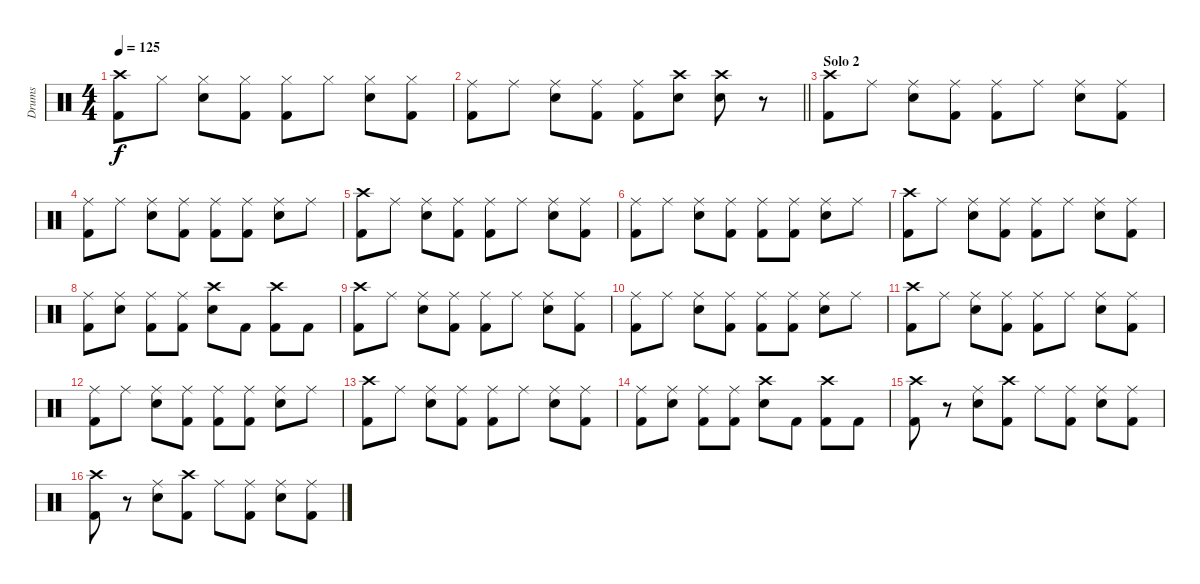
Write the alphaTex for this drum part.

\track ("Drums" "Drums") {instrument percussion}
\staff {score}
\articulation defaults
\ts (4 4)
\tempo 125
\clef neutral
\ks c
("Crash high (hit)" "Kick (hit) 2").8{dy f} "Hi-Hat (closed)".8 ("Hi-Hat (closed)" "Snare (hit) 2").8 ("Hi-Hat (closed)" "Kick (hit) 2").8 ("Hi-Hat (closed)" "Kick (hit) 2").8 "Hi-Hat (closed)".8 ("Hi-Hat (closed)" "Snare (hit) 2").8 ("Hi-Hat (closed)" "Kick (hit) 2").8 |
\barLineRight lightlight
("Ride (middle)" "Kick (hit) 2").8 "Ride (middle)".8 ("Ride (middle)" "Snare (hit) 2").8 ("Ride (middle)" "Kick (hit) 2").8 ("Ride (middle)" "Kick (hit) 2").8 ("Crash high (hit)" "Snare (hit) 2").8 ("Crash high (hit)" "Snare (hit) 2").8 r.8 |
\section ("" "Solo 2")
("Crash high (hit)" "Kick (hit) 2").8 "Ride (middle)".8 ("Ride (middle)" "Snare (hit) 2").8 ("Ride (middle)" "Kick (hit) 2").8 ("Ride (middle)" "Kick (hit) 2").8 "Ride (middle)".8 ("Ride (middle)" "Snare (hit) 2").8 ("Ride (middle)" "Kick (hit) 2").8 |
("Ride (middle)" "Kick (hit) 2").8 "Ride (middle)".8 ("Ride (middle)" "Snare (hit) 2").8 ("Ride (middle)" "Kick (hit) 2").8 ("Ride (middle)" "Kick (hit) 2").8 ("Ride (middle)" "Kick (hit) 2").8 ("Ride (middle)" "Snare (hit) 2").8 "Ride (middle)".8 |
("Crash high (hit)" "Kick (hit) 2").8 "Ride (middle)".8 ("Ride (middle)" "Snare (hit) 2").8 ("Ride (middle)" "Kick (hit) 2").8 ("Ride (middle)" "Kick (hit) 2").8 "Ride (middle)".8 ("Ride (middle)" "Snare (hit) 2").8 ("Ride (middle)" "Kick (hit) 2").8 |
("Ride (middle)" "Kick (hit) 2").8 "Ride (middle)".8 ("Ride (middle)" "Snare (hit) 2").8 ("Ride (middle)" "Kick (hit) 2").8 ("Ride (middle)" "Kick (hit) 2").8 ("Ride (middle)" "Kick (hit) 2").8 ("Ride (middle)" "Snare (hit) 2").8 "Ride (middle)".8 |
("Crash high (hit)" "Kick (hit) 2").8 "Ride (middle)".8 ("Ride (middle)" "Snare (hit) 2").8 ("Ride (middle)" "Kick (hit) 2").8 ("Ride (middle)" "Kick (hit) 2").8 "Ride (middle)".8 ("Ride (middle)" "Snare (hit) 2").8 ("Ride (middle)" "Kick (hit) 2").8 |
("Ride (middle)" "Kick (hit) 2").8 ("Ride (middle)" "Snare (hit) 2").8 ("Ride (middle)" "Kick (hit) 2").8 ("Ride (middle)" "Kick (hit) 2").8 ("Crash high (hit)" "Snare (hit) 2").8 "Kick (hit) 2".8 ("Crash high (hit)" "Kick (hit) 2").8 "Kick (hit) 2".8 |
("Crash high (hit)" "Kick (hit) 2").8 "Ride (middle)".8 ("Ride (middle)" "Snare (hit) 2").8 ("Ride (middle)" "Kick (hit) 2").8 ("Ride (middle)" "Kick (hit) 2").8 "Ride (middle)".8 ("Ride (middle)" "Snare (hit) 2").8 ("Ride (middle)" "Kick (hit) 2").8 |
("Ride (middle)" "Kick (hit) 2").8 "Ride (middle)".8 ("Ride (middle)" "Snare (hit) 2").8 ("Ride (middle)" "Kick (hit) 2").8 ("Ride (middle)" "Kick (hit) 2").8 ("Ride (middle)" "Kick (hit) 2").8 ("Ride (middle)" "Snare (hit) 2").8 "Ride (middle)".8 |
("Crash high (hit)" "Kick (hit) 2").8 "Ride (middle)".8 ("Ride (middle)" "Snare (hit) 2").8 ("Ride (middle)" "Kick (hit) 2").8 ("Ride (middle)" "Kick (hit) 2").8 "Ride (middle)".8 ("Ride (middle)" "Snare (hit) 2").8 ("Ride (middle)" "Kick (hit) 2").8 |
("Ride (middle)" "Kick (hit) 2").8 "Ride (middle)".8 ("Ride (middle)" "Snare (hit) 2").8 ("Ride (middle)" "Kick (hit) 2").8 ("Ride (middle)" "Kick (hit) 2").8 ("Ride (middle)" "Kick (hit) 2").8 ("Ride (middle)" "Snare (hit) 2").8 "Ride (middle)".8 |
("Crash high (hit)" "Kick (hit) 2").8 "Ride (middle)".8 ("Ride (middle)" "Snare (hit) 2").8 ("Ride (middle)" "Kick (hit) 2").8 ("Ride (middle)" "Kick (hit) 2").8 "Ride (middle)".8 ("Ride (middle)" "Snare (hit) 2").8 ("Ride (middle)" "Kick (hit) 2").8 |
("Ride (middle)" "Kick (hit) 2").8 ("Ride (middle)" "Snare (hit) 2").8 ("Ride (middle)" "Kick (hit) 2").8 ("Ride (middle)" "Kick (hit) 2").8 ("Crash high (hit)" "Snare (hit) 2").8 "Kick (hit) 2".8 ("Crash high (hit)" "Kick (hit) 2").8 "Kick (hit) 2".8 |
("Crash high (hit)" "Kick (hit) 2").8 r.8 ("Ride (middle)" "Snare (hit) 2").8 ("Crash high (hit)" "Kick (hit) 2").8 "Ride (middle)".8 ("Ride (middle)" "Kick (hit) 2").8 ("Ride (middle)" "Snare (hit) 2").8 ("Ride (middle)" "Kick (hit) 2").8 |
("Crash high (hit)" "Kick (hit) 2").8 r.8 ("Ride (middle)" "Snare (hit) 2").8 ("Crash high (hit)" "Kick (hit) 2").8 "Ride (middle)".8 ("Ride (middle)" "Kick (hit) 2").8 ("Ride (middle)" "Snare (hit) 2").8 ("Ride (middle)" "Kick (hit) 2").8
